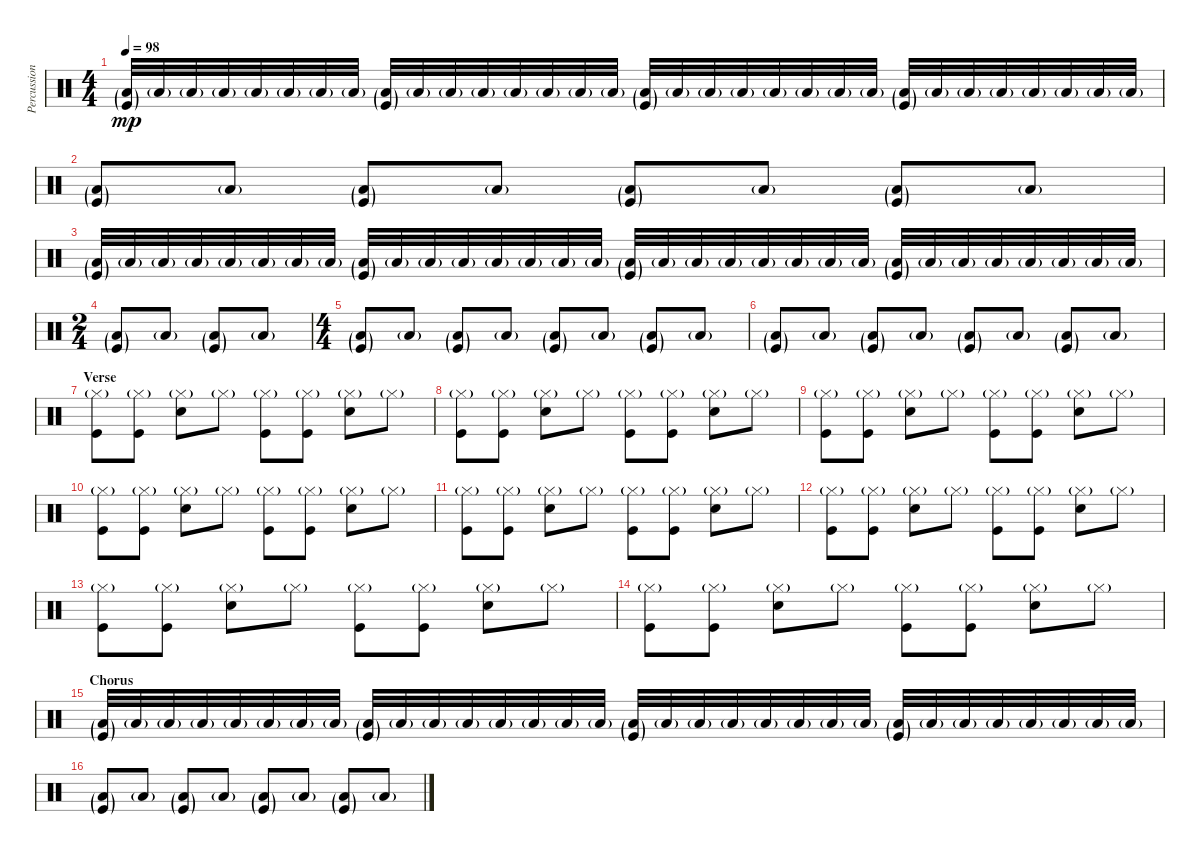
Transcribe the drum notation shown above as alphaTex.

\track ("Percussions" "Percussion") {instrument percussion}
\staff {score}
\articulation defaults
\ts (4 4)
\tempo 98
\clef neutral
\ks c
("Low Floor Tom (hit)"{g} "Kick (hit)"{g}).32{dy mp} "Low Floor Tom (hit)"{g}.32 "Low Floor Tom (hit)"{g}.32 "Low Floor Tom (hit)"{g}.32 "Low Floor Tom (hit)"{g}.32 "Low Floor Tom (hit)"{g}.32 "Low Floor Tom (hit)"{g}.32 "Low Floor Tom (hit)"{g}.32 ("Low Floor Tom (hit)"{g} "Kick (hit)"{g}).32 "Low Floor Tom (hit)"{g}.32 "Low Floor Tom (hit)"{g}.32 "Low Floor Tom (hit)"{g}.32 "Low Floor Tom (hit)"{g}.32 "Low Floor Tom (hit)"{g}.32 "Low Floor Tom (hit)"{g}.32 "Low Floor Tom (hit)"{g}.32 ("Low Floor Tom (hit)"{g} "Kick (hit)"{g}).32 "Low Floor Tom (hit)"{g}.32 "Low Floor Tom (hit)"{g}.32 "Low Floor Tom (hit)"{g}.32 "Low Floor Tom (hit)"{g}.32 "Low Floor Tom (hit)"{g}.32 "Low Floor Tom (hit)"{g}.32 "Low Floor Tom (hit)"{g}.32 ("Low Floor Tom (hit)"{g} "Kick (hit)"{g}).32 "Low Floor Tom (hit)"{g}.32 "Low Floor Tom (hit)"{g}.32 "Low Floor Tom (hit)"{g}.32 "Low Floor Tom (hit)"{g}.32 "Low Floor Tom (hit)"{g}.32 "Low Floor Tom (hit)"{g}.32 "Low Floor Tom (hit)"{g}.32 |
("Low Floor Tom (hit)"{g} "Kick (hit)"{g}).8 "Low Floor Tom (hit)"{g}.8 ("Low Floor Tom (hit)"{g} "Kick (hit)"{g}).8 "Low Floor Tom (hit)"{g}.8 ("Low Floor Tom (hit)"{g} "Kick (hit)"{g}).8 "Low Floor Tom (hit)"{g}.8 ("Low Floor Tom (hit)"{g} "Kick (hit)"{g}).8 "Low Floor Tom (hit)"{g}.8 |
("Low Floor Tom (hit)"{g} "Kick (hit)"{g}).32 "Low Floor Tom (hit)"{g}.32 "Low Floor Tom (hit)"{g}.32 "Low Floor Tom (hit)"{g}.32 "Low Floor Tom (hit)"{g}.32 "Low Floor Tom (hit)"{g}.32 "Low Floor Tom (hit)"{g}.32 "Low Floor Tom (hit)"{g}.32 ("Low Floor Tom (hit)"{g} "Kick (hit)"{g}).32 "Low Floor Tom (hit)"{g}.32 "Low Floor Tom (hit)"{g}.32 "Low Floor Tom (hit)"{g}.32 "Low Floor Tom (hit)"{g}.32 "Low Floor Tom (hit)"{g}.32 "Low Floor Tom (hit)"{g}.32 "Low Floor Tom (hit)"{g}.32 ("Low Floor Tom (hit)"{g} "Kick (hit)"{g}).32 "Low Floor Tom (hit)"{g}.32 "Low Floor Tom (hit)"{g}.32 "Low Floor Tom (hit)"{g}.32 "Low Floor Tom (hit)"{g}.32 "Low Floor Tom (hit)"{g}.32 "Low Floor Tom (hit)"{g}.32 "Low Floor Tom (hit)"{g}.32 ("Low Floor Tom (hit)"{g} "Kick (hit)"{g}).32 "Low Floor Tom (hit)"{g}.32 "Low Floor Tom (hit)"{g}.32 "Low Floor Tom (hit)"{g}.32 "Low Floor Tom (hit)"{g}.32 "Low Floor Tom (hit)"{g}.32 "Low Floor Tom (hit)"{g}.32 "Low Floor Tom (hit)"{g}.32 |
\ts (2 4)
("Low Floor Tom (hit)"{g} "Kick (hit)"{g}).8 "Low Floor Tom (hit)"{g}.8 ("Low Floor Tom (hit)"{g} "Kick (hit)"{g}).8 "Low Floor Tom (hit)"{g}.8 |
\ts (4 4)
("Low Floor Tom (hit)"{g} "Kick (hit)"{g}).8 "Low Floor Tom (hit)"{g}.8 ("Low Floor Tom (hit)"{g} "Kick (hit)"{g}).8 "Low Floor Tom (hit)"{g}.8 ("Low Floor Tom (hit)"{g} "Kick (hit)"{g}).8 "Low Floor Tom (hit)"{g}.8 ("Low Floor Tom (hit)"{g} "Kick (hit)"{g}).8 "Low Floor Tom (hit)"{g}.8 |
("Low Floor Tom (hit)"{g} "Kick (hit)"{g}).8 "Low Floor Tom (hit)"{g}.8 ("Low Floor Tom (hit)"{g} "Kick (hit)"{g}).8 "Low Floor Tom (hit)"{g}.8 ("Low Floor Tom (hit)"{g} "Kick (hit)"{g}).8 "Low Floor Tom (hit)"{g}.8 ("Low Floor Tom (hit)"{g} "Kick (hit)"{g}).8 "Low Floor Tom (hit)"{g}.8 |
\section ("" "Verse")
("Hi-Hat (closed)"{g} "Kick (hit)").8{volume 13} ("Hi-Hat (closed)"{g} "Kick (hit)").8 ("Hi-Hat (closed)"{g} "Snare (hit) 2").8 "Hi-Hat (closed)"{g}.8 ("Hi-Hat (closed)"{g} "Kick (hit)").8 ("Hi-Hat (closed)"{g} "Kick (hit)").8 ("Hi-Hat (closed)"{g} "Snare (hit) 2").8 "Hi-Hat (closed)"{g}.8 |
("Hi-Hat (closed)"{g} "Kick (hit)").8 ("Hi-Hat (closed)"{g} "Kick (hit)").8 ("Hi-Hat (closed)"{g} "Snare (hit) 2").8 "Hi-Hat (closed)"{g}.8 ("Hi-Hat (closed)"{g} "Kick (hit)").8 ("Hi-Hat (closed)"{g} "Kick (hit)").8 ("Hi-Hat (closed)"{g} "Snare (hit) 2").8 "Hi-Hat (closed)"{g}.8 |
("Hi-Hat (closed)"{g} "Kick (hit)").8 ("Hi-Hat (closed)"{g} "Kick (hit)").8 ("Hi-Hat (closed)"{g} "Snare (hit) 2").8 "Hi-Hat (closed)"{g}.8 ("Hi-Hat (closed)"{g} "Kick (hit)").8 ("Hi-Hat (closed)"{g} "Kick (hit)").8 ("Hi-Hat (closed)"{g} "Snare (hit) 2").8 "Hi-Hat (closed)"{g}.8 |
("Hi-Hat (closed)"{g} "Kick (hit)").8 ("Hi-Hat (closed)"{g} "Kick (hit)").8 ("Hi-Hat (closed)"{g} "Snare (hit) 2").8 "Hi-Hat (closed)"{g}.8 ("Hi-Hat (closed)"{g} "Kick (hit)").8 ("Hi-Hat (closed)"{g} "Kick (hit)").8 ("Hi-Hat (closed)"{g} "Snare (hit) 2").8 "Hi-Hat (closed)"{g}.8 |
("Hi-Hat (closed)"{g} "Kick (hit)").8 ("Hi-Hat (closed)"{g} "Kick (hit)").8 ("Hi-Hat (closed)"{g} "Snare (hit) 2").8 "Hi-Hat (closed)"{g}.8 ("Hi-Hat (closed)"{g} "Kick (hit)").8 ("Hi-Hat (closed)"{g} "Kick (hit)").8 ("Hi-Hat (closed)"{g} "Snare (hit) 2").8 "Hi-Hat (closed)"{g}.8 |
("Hi-Hat (closed)"{g} "Kick (hit)").8 ("Hi-Hat (closed)"{g} "Kick (hit)").8 ("Hi-Hat (closed)"{g} "Snare (hit) 2").8 "Hi-Hat (closed)"{g}.8 ("Hi-Hat (closed)"{g} "Kick (hit)").8 ("Hi-Hat (closed)"{g} "Kick (hit)").8 ("Hi-Hat (closed)"{g} "Snare (hit) 2").8 "Hi-Hat (closed)"{g}.8 |
("Hi-Hat (closed)"{g} "Kick (hit)").8 ("Hi-Hat (closed)"{g} "Kick (hit)").8 ("Hi-Hat (closed)"{g} "Snare (hit) 2").8 "Hi-Hat (closed)"{g}.8 ("Hi-Hat (closed)"{g} "Kick (hit)").8 ("Hi-Hat (closed)"{g} "Kick (hit)").8 ("Hi-Hat (closed)"{g} "Snare (hit) 2").8 "Hi-Hat (closed)"{g}.8 |
("Hi-Hat (closed)"{g} "Kick (hit)").8 ("Hi-Hat (closed)"{g} "Kick (hit)").8 ("Hi-Hat (closed)"{g} "Snare (hit) 2").8 "Hi-Hat (closed)"{g}.8 ("Hi-Hat (closed)"{g} "Kick (hit)").8 ("Hi-Hat (closed)"{g} "Kick (hit)").8 ("Hi-Hat (closed)"{g} "Snare (hit) 2").8 "Hi-Hat (closed)"{g}.8 |
\section ("" "Chorus")
("Low Floor Tom (hit)"{g} "Kick (hit)"{g}).32{volume 9} "Low Floor Tom (hit)"{g}.32 "Low Floor Tom (hit)"{g}.32 "Low Floor Tom (hit)"{g}.32 "Low Floor Tom (hit)"{g}.32 "Low Floor Tom (hit)"{g}.32 "Low Floor Tom (hit)"{g}.32 "Low Floor Tom (hit)"{g}.32 ("Low Floor Tom (hit)"{g} "Kick (hit)"{g}).32 "Low Floor Tom (hit)"{g}.32 "Low Floor Tom (hit)"{g}.32 "Low Floor Tom (hit)"{g}.32 "Low Floor Tom (hit)"{g}.32 "Low Floor Tom (hit)"{g}.32 "Low Floor Tom (hit)"{g}.32 "Low Floor Tom (hit)"{g}.32 ("Low Floor Tom (hit)"{g} "Kick (hit)"{g}).32 "Low Floor Tom (hit)"{g}.32 "Low Floor Tom (hit)"{g}.32 "Low Floor Tom (hit)"{g}.32 "Low Floor Tom (hit)"{g}.32 "Low Floor Tom (hit)"{g}.32 "Low Floor Tom (hit)"{g}.32 "Low Floor Tom (hit)"{g}.32 ("Low Floor Tom (hit)"{g} "Kick (hit)"{g}).32 "Low Floor Tom (hit)"{g}.32 "Low Floor Tom (hit)"{g}.32 "Low Floor Tom (hit)"{g}.32 "Low Floor Tom (hit)"{g}.32 "Low Floor Tom (hit)"{g}.32 "Low Floor Tom (hit)"{g}.32 "Low Floor Tom (hit)"{g}.32 |
("Low Floor Tom (hit)"{g} "Kick (hit)"{g}).8 "Low Floor Tom (hit)"{g}.8 ("Low Floor Tom (hit)"{g} "Kick (hit)"{g}).8 "Low Floor Tom (hit)"{g}.8 ("Low Floor Tom (hit)"{g} "Kick (hit)"{g}).8 "Low Floor Tom (hit)"{g}.8 ("Low Floor Tom (hit)"{g} "Kick (hit)"{g}).8 "Low Floor Tom (hit)"{g}.8
